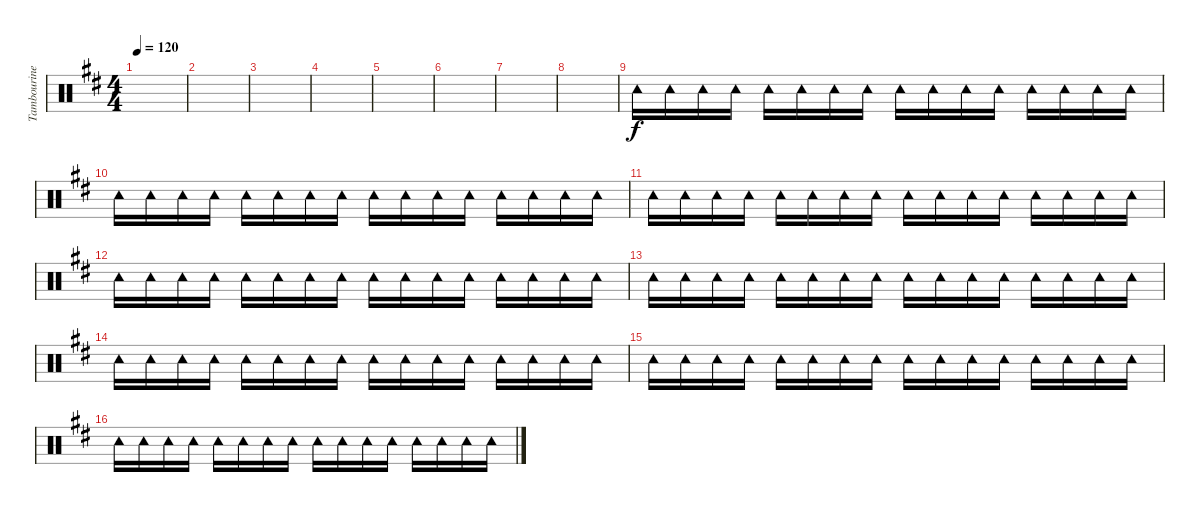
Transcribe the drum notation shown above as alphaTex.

\track ("Tambourine" "Tambourine") {instrument percussion}
\staff {score}
\articulation defaults
\ts (4 4)
\tempo 120
\clef neutral
\ks d
|
|
|
|
|
|
|
|
"Tambourine (hit)".16 "Tambourine (hit)".16 "Tambourine (hit)".16 "Tambourine (hit)".16 "Tambourine (hit)".16 "Tambourine (hit)".16 "Tambourine (hit)".16 "Tambourine (hit)".16 "Tambourine (hit)".16 "Tambourine (hit)".16 "Tambourine (hit)".16 "Tambourine (hit)".16 "Tambourine (hit)".16 "Tambourine (hit)".16 "Tambourine (hit)".16 "Tambourine (hit)".16 |
"Tambourine (hit)".16 "Tambourine (hit)".16 "Tambourine (hit)".16 "Tambourine (hit)".16 "Tambourine (hit)".16 "Tambourine (hit)".16 "Tambourine (hit)".16 "Tambourine (hit)".16 "Tambourine (hit)".16 "Tambourine (hit)".16 "Tambourine (hit)".16 "Tambourine (hit)".16 "Tambourine (hit)".16 "Tambourine (hit)".16 "Tambourine (hit)".16 "Tambourine (hit)".16 |
"Tambourine (hit)".16 "Tambourine (hit)".16 "Tambourine (hit)".16 "Tambourine (hit)".16 "Tambourine (hit)".16 "Tambourine (hit)".16 "Tambourine (hit)".16 "Tambourine (hit)".16 "Tambourine (hit)".16 "Tambourine (hit)".16 "Tambourine (hit)".16 "Tambourine (hit)".16 "Tambourine (hit)".16 "Tambourine (hit)".16 "Tambourine (hit)".16 "Tambourine (hit)".16 |
"Tambourine (hit)".16 "Tambourine (hit)".16 "Tambourine (hit)".16 "Tambourine (hit)".16 "Tambourine (hit)".16 "Tambourine (hit)".16 "Tambourine (hit)".16 "Tambourine (hit)".16 "Tambourine (hit)".16 "Tambourine (hit)".16 "Tambourine (hit)".16 "Tambourine (hit)".16 "Tambourine (hit)".16 "Tambourine (hit)".16 "Tambourine (hit)".16 "Tambourine (hit)".16 |
"Tambourine (hit)".16 "Tambourine (hit)".16 "Tambourine (hit)".16 "Tambourine (hit)".16 "Tambourine (hit)".16 "Tambourine (hit)".16 "Tambourine (hit)".16 "Tambourine (hit)".16 "Tambourine (hit)".16 "Tambourine (hit)".16 "Tambourine (hit)".16 "Tambourine (hit)".16 "Tambourine (hit)".16 "Tambourine (hit)".16 "Tambourine (hit)".16 "Tambourine (hit)".16 |
"Tambourine (hit)".16 "Tambourine (hit)".16 "Tambourine (hit)".16 "Tambourine (hit)".16 "Tambourine (hit)".16 "Tambourine (hit)".16 "Tambourine (hit)".16 "Tambourine (hit)".16 "Tambourine (hit)".16 "Tambourine (hit)".16 "Tambourine (hit)".16 "Tambourine (hit)".16 "Tambourine (hit)".16 "Tambourine (hit)".16 "Tambourine (hit)".16 "Tambourine (hit)".16 |
"Tambourine (hit)".16 "Tambourine (hit)".16 "Tambourine (hit)".16 "Tambourine (hit)".16 "Tambourine (hit)".16 "Tambourine (hit)".16 "Tambourine (hit)".16 "Tambourine (hit)".16 "Tambourine (hit)".16 "Tambourine (hit)".16 "Tambourine (hit)".16 "Tambourine (hit)".16 "Tambourine (hit)".16 "Tambourine (hit)".16 "Tambourine (hit)".16 "Tambourine (hit)".16 |
"Tambourine (hit)".16 "Tambourine (hit)".16 "Tambourine (hit)".16 "Tambourine (hit)".16 "Tambourine (hit)".16 "Tambourine (hit)".16 "Tambourine (hit)".16 "Tambourine (hit)".16 "Tambourine (hit)".16 "Tambourine (hit)".16 "Tambourine (hit)".16 "Tambourine (hit)".16 "Tambourine (hit)".16 "Tambourine (hit)".16 "Tambourine (hit)".16 "Tambourine (hit)".16
